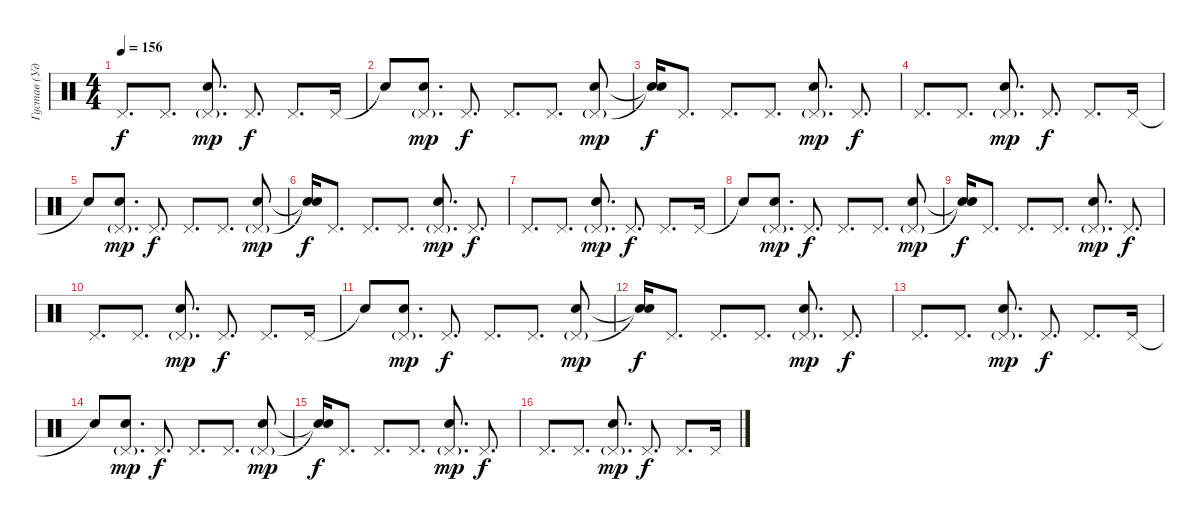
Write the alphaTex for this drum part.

\track ("Густав (Ударные)" "Густав (Уд") {instrument percussion}
\staff {score}
\articulation defaults
\ts (4 4)
\tempo 156
\clef neutral
\ks c "Pedal Hi-Hat (hit)".8{d dy f volume 8} "Pedal Hi-Hat (hit)".8{d}
("Pedal Hi-Hat (hit)"{g} "Electric Snare (hit)").8{d dy mp} "Pedal Hi-Hat (hit)".8{d dy f} "Pedal Hi-Hat (hit)".8{d} "Pedal Hi-Hat (hit)".16 |
"Snare (hit)"{t}.8 ("Pedal Hi-Hat (hit)"{g} "Electric Snare (hit)").8{d dy mp} "Pedal Hi-Hat (hit)".8{d dy f} "Pedal Hi-Hat (hit)".8{d} "Pedal Hi-Hat (hit)".8{d} ("Pedal Hi-Hat (hit)"{g} "Electric Snare (hit)").8{dy mp} |
("Snare (hit)"{t} "Snare (hit)"{t}).16{dy f} "Pedal Hi-Hat (hit)".8{d} "Pedal Hi-Hat (hit)".8{d} "Pedal Hi-Hat (hit)".8{d} ("Pedal Hi-Hat (hit)"{g} "Electric Snare (hit)").8{d dy mp} "Pedal Hi-Hat (hit)".8{d dy f} |
"Pedal Hi-Hat (hit)".8{d} "Pedal Hi-Hat (hit)".8{d} ("Pedal Hi-Hat (hit)"{g} "Electric Snare (hit)").8{d dy mp} "Pedal Hi-Hat (hit)".8{d dy f} "Pedal Hi-Hat (hit)".8{d} "Pedal Hi-Hat (hit)".16 |
"Snare (hit)"{t}.8 ("Pedal Hi-Hat (hit)"{g} "Electric Snare (hit)").8{d dy mp volume 6} "Pedal Hi-Hat (hit)".8{d dy f} "Pedal Hi-Hat (hit)".8{d} "Pedal Hi-Hat (hit)".8{d} ("Pedal Hi-Hat (hit)"{g} "Electric Snare (hit)").8{dy mp} |
("Snare (hit)"{t} "Snare (hit)"{t}).16{dy f} "Pedal Hi-Hat (hit)".8{d} "Pedal Hi-Hat (hit)".8{d} "Pedal Hi-Hat (hit)".8{d} ("Pedal Hi-Hat (hit)"{g} "Electric Snare (hit)").8{d dy mp} "Pedal Hi-Hat (hit)".8{d dy f} |
"Pedal Hi-Hat (hit)".8{d} "Pedal Hi-Hat (hit)".8{d} ("Pedal Hi-Hat (hit)"{g} "Electric Snare (hit)").8{d dy mp} "Pedal Hi-Hat (hit)".8{d dy f} "Pedal Hi-Hat (hit)".8{d} "Pedal Hi-Hat (hit)".16 |
"Snare (hit)"{t}.8 ("Pedal Hi-Hat (hit)"{g} "Electric Snare (hit)").8{d dy mp} "Pedal Hi-Hat (hit)".8{d dy f} "Pedal Hi-Hat (hit)".8{d} "Pedal Hi-Hat (hit)".8{d} ("Pedal Hi-Hat (hit)"{g} "Electric Snare (hit)").8{dy mp} |
("Snare (hit)"{t} "Snare (hit)"{t}).16{dy f} "Pedal Hi-Hat (hit)".8{d} "Pedal Hi-Hat (hit)".8{d} "Pedal Hi-Hat (hit)".8{d volume 5} ("Pedal Hi-Hat (hit)"{g} "Electric Snare (hit)").8{d dy mp} "Pedal Hi-Hat (hit)".8{d dy f} |
"Pedal Hi-Hat (hit)".8{d} "Pedal Hi-Hat (hit)".8{d} ("Pedal Hi-Hat (hit)"{g} "Electric Snare (hit)").8{d dy mp} "Pedal Hi-Hat (hit)".8{d dy f} "Pedal Hi-Hat (hit)".8{d} "Pedal Hi-Hat (hit)".16 |
"Snare (hit)"{t}.8 ("Pedal Hi-Hat (hit)"{g} "Electric Snare (hit)").8{d dy mp} "Pedal Hi-Hat (hit)".8{d dy f} "Pedal Hi-Hat (hit)".8{d} "Pedal Hi-Hat (hit)".8{d} ("Pedal Hi-Hat (hit)"{g} "Electric Snare (hit)").8{dy mp} |
("Snare (hit)"{t} "Snare (hit)"{t}).16{dy f} "Pedal Hi-Hat (hit)".8{d} "Pedal Hi-Hat (hit)".8{d} "Pedal Hi-Hat (hit)".8{d} ("Pedal Hi-Hat (hit)"{g} "Electric Snare (hit)").8{d dy mp} "Pedal Hi-Hat (hit)".8{d dy f} |
"Pedal Hi-Hat (hit)".8{d} "Pedal Hi-Hat (hit)".8{d} ("Pedal Hi-Hat (hit)"{g} "Electric Snare (hit)").8{d dy mp} "Pedal Hi-Hat (hit)".8{d dy f} "Pedal Hi-Hat (hit)".8{d volume 3} "Pedal Hi-Hat (hit)".16 |
"Snare (hit)"{t}.8 ("Pedal Hi-Hat (hit)"{g} "Electric Snare (hit)").8{d dy mp} "Pedal Hi-Hat (hit)".8{d dy f} "Pedal Hi-Hat (hit)".8{d} "Pedal Hi-Hat (hit)".8{d} ("Pedal Hi-Hat (hit)"{g} "Electric Snare (hit)").8{dy mp} |
("Snare (hit)"{t} "Snare (hit)"{t}).16{dy f} "Pedal Hi-Hat (hit)".8{d} "Pedal Hi-Hat (hit)".8{d} "Pedal Hi-Hat (hit)".8{d} ("Pedal Hi-Hat (hit)"{g} "Electric Snare (hit)").8{d dy mp} "Pedal Hi-Hat (hit)".8{d dy f} |
"Pedal Hi-Hat (hit)".8{d} "Pedal Hi-Hat (hit)".8{d} ("Pedal Hi-Hat (hit)"{g} "Electric Snare (hit)").8{d dy mp} "Pedal Hi-Hat (hit)".8{d dy f} "Pedal Hi-Hat (hit)".8{d} "Pedal Hi-Hat (hit)".16
